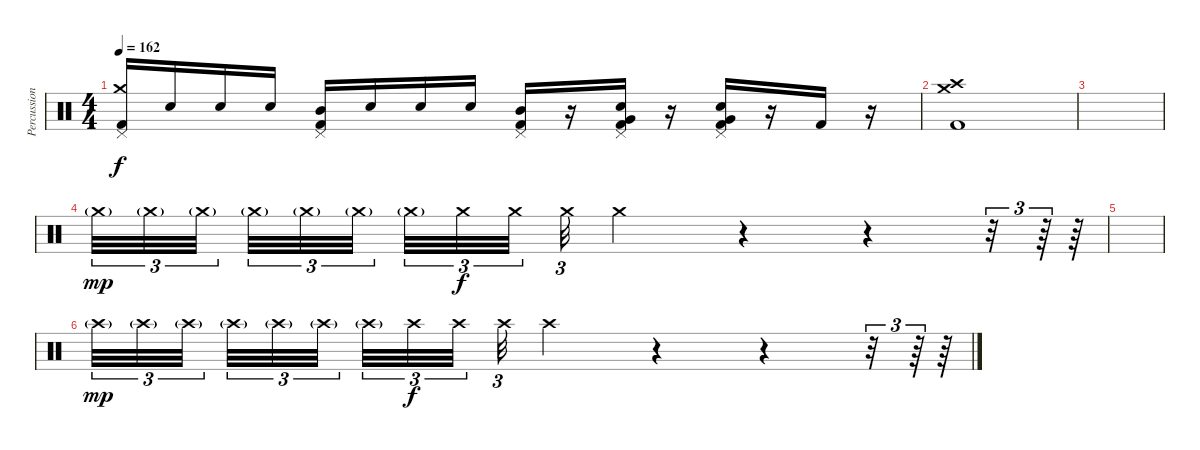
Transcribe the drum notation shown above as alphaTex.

\track ("Percussion" "Percussion") {instrument percussion}
\staff {score}
\articulation defaults
\ts (4 4)
\tempo 162
\clef neutral
\ks c
("Kick (hit) 2" "Crash medium (hit)" "Pedal Hi-Hat (hit)").16{dy f} "Snare (hit) 2".16 "Snare (hit) 2".16 "Snare (hit) 2".16 ("Kick (hit) 2" "Mid Tom (hit)" "Pedal Hi-Hat (hit)").16 "Snare (hit) 2".16 "Snare (hit) 2".16 "Snare (hit) 2".16 ("Kick (hit) 2" "Mid Tom (hit)" "Pedal Hi-Hat (hit)").16 r.16 ("Kick (hit) 2" "Snare (hit) 2" "Very Low Tom (hit)" "Pedal Hi-Hat (hit)").16 r.16 ("Kick (hit) 2" "Snare (hit) 2" "Very Low Tom (hit)" "Pedal Hi-Hat (hit)").16 r.16 "Kick (hit) 2".16 r.16 |
("Kick (hit) 2" "Crash medium (hit)" "Crash high (hit)").1 |
|
"Crash medium (hit)"{g}.32{tu (3 2) dy mp} "Crash medium (hit)"{g}.32{tu (3 2)} "Crash medium (hit)"{g}.32{tu (3 2)} "Crash medium (hit)"{g}.32{tu (3 2)} "Crash medium (hit)"{g}.32{tu (3 2)} "Crash medium (hit)"{g}.32{tu (3 2)} "Crash medium (hit)"{g}.32{tu (3 2)} "Crash medium (hit)".32{tu (3 2) dy f} "Crash medium (hit)".32{tu (3 2)} "Crash medium (hit)".32{tu (3 2)} "Crash medium (hit)".4 r.4 r.4 r.32{tu (3 2)} r.64{tu (3 2)} r.64{tu (3 2)} |
|
"Crash high (hit)"{g}.32{tu (3 2) dy mp} "Crash high (hit)"{g}.32{tu (3 2)} "Crash high (hit)"{g}.32{tu (3 2)} "Crash high (hit)"{g}.32{tu (3 2)} "Crash high (hit)"{g}.32{tu (3 2)} "Crash high (hit)"{g}.32{tu (3 2)} "Crash high (hit)"{g}.32{tu (3 2)} "Crash high (hit)".32{tu (3 2) dy f} "Crash high (hit)".32{tu (3 2)} "Crash high (hit)".32{tu (3 2)} "Crash high (hit)".4 r.4 r.4 r.32{tu (3 2)} r.64{tu (3 2)} r.64{tu (3 2)}
